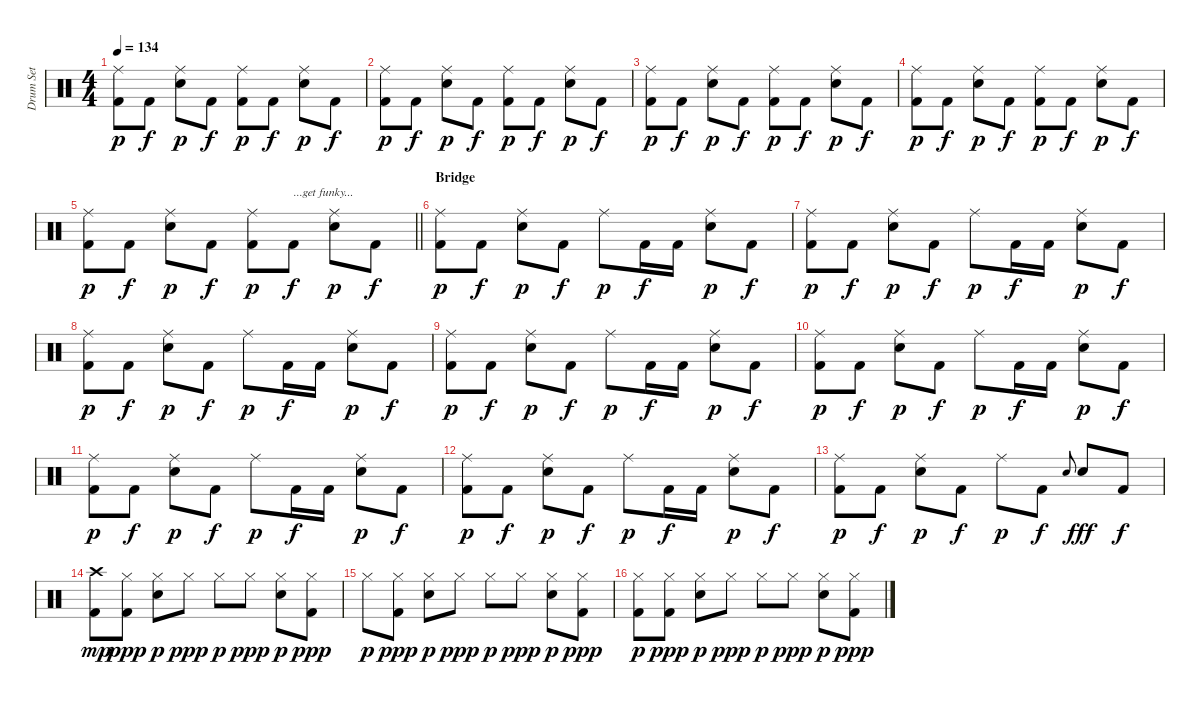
\track ("Drum Set" "Drum Set") {instrument percussion}
\staff {score}
\articulation defaults
\ts (4 4)
\tempo 134
\clef neutral
\ks c
("Ride (middle)" "Kick (hit) 2").8{dy p} "Kick (hit) 2".8{dy f} ("Electric Snare (hit)" "Ride (middle)").8{dy p} "Kick (hit) 2".8{dy f} ("Kick (hit) 2" "Ride (middle)").8{dy p} "Kick (hit) 2".8{dy f} ("Electric Snare (hit)" "Ride (middle)").8{dy p} "Kick (hit) 2".8{dy f} |
("Ride (middle)" "Kick (hit) 2").8{dy p} "Kick (hit) 2".8{dy f} ("Electric Snare (hit)" "Ride (middle)").8{dy p} "Kick (hit) 2".8{dy f} ("Kick (hit) 2" "Ride (middle)").8{dy p} "Kick (hit) 2".8{dy f} ("Electric Snare (hit)" "Ride (middle)").8{dy p} "Kick (hit) 2".8{dy f} |
("Ride (middle)" "Kick (hit) 2").8{dy p} "Kick (hit) 2".8{dy f} ("Electric Snare (hit)" "Ride (middle)").8{dy p} "Kick (hit) 2".8{dy f} ("Kick (hit) 2" "Ride (middle)").8{dy p} "Kick (hit) 2".8{dy f} ("Electric Snare (hit)" "Ride (middle)").8{dy p} "Kick (hit) 2".8{dy f} |
("Ride (middle)" "Kick (hit) 2").8{dy p} "Kick (hit) 2".8{dy f} ("Electric Snare (hit)" "Ride (middle)").8{dy p} "Kick (hit) 2".8{dy f} ("Kick (hit) 2" "Ride (middle)").8{dy p} "Kick (hit) 2".8{dy f} ("Electric Snare (hit)" "Ride (middle)").8{dy p} "Kick (hit) 2".8{dy f} |
\barLineRight lightlight
("Ride (middle)" "Kick (hit) 2").8{dy p} "Kick (hit) 2".8{dy f} ("Electric Snare (hit)" "Ride (middle)").8{dy p} "Kick (hit) 2".8{dy f} ("Kick (hit) 2" "Ride (middle)").8{dy p} "Kick (hit) 2".8{txt "...get funky..." dy f} ("Electric Snare (hit)" "Ride (middle)").8{dy p} "Kick (hit) 2".8{dy f} |
\section ("" "Bridge")
("Ride (middle)" "Kick (hit) 2").8{dy p} "Kick (hit) 2".8{dy f} ("Electric Snare (hit)" "Ride (middle)").8{dy p} "Kick (hit) 2".8{dy f} "Ride (middle)".8{dy p} "Kick (hit) 2".16{dy f} "Kick (hit) 2".16 ("Electric Snare (hit)" "Ride (middle)").8{dy p} "Kick (hit) 2".8{dy f} |
("Ride (middle)" "Kick (hit) 2").8{dy p} "Kick (hit) 2".8{dy f} ("Electric Snare (hit)" "Ride (middle)").8{dy p} "Kick (hit) 2".8{dy f} "Ride (middle)".8{dy p} "Kick (hit) 2".16{dy f} "Kick (hit) 2".16 ("Electric Snare (hit)" "Ride (middle)").8{dy p} "Kick (hit) 2".8{dy f} |
("Ride (middle)" "Kick (hit) 2").8{dy p} "Kick (hit) 2".8{dy f} ("Electric Snare (hit)" "Ride (middle)").8{dy p} "Kick (hit) 2".8{dy f} "Ride (middle)".8{dy p} "Kick (hit) 2".16{dy f} "Kick (hit) 2".16 ("Electric Snare (hit)" "Ride (middle)").8{dy p} "Kick (hit) 2".8{dy f} |
("Ride (middle)" "Kick (hit) 2").8{dy p} "Kick (hit) 2".8{dy f} ("Electric Snare (hit)" "Ride (middle)").8{dy p} "Kick (hit) 2".8{dy f} "Ride (middle)".8{dy p} "Kick (hit) 2".16{dy f} "Kick (hit) 2".16 ("Electric Snare (hit)" "Ride (middle)").8{dy p} "Kick (hit) 2".8{dy f} |
("Ride (middle)" "Kick (hit) 2").8{dy p} "Kick (hit) 2".8{dy f} ("Electric Snare (hit)" "Ride (middle)").8{dy p} "Kick (hit) 2".8{dy f} "Ride (middle)".8{dy p} "Kick (hit) 2".16{dy f} "Kick (hit) 2".16 ("Electric Snare (hit)" "Ride (middle)").8{dy p} "Kick (hit) 2".8{dy f} |
("Ride (middle)" "Kick (hit) 2").8{dy p} "Kick (hit) 2".8{dy f} ("Electric Snare (hit)" "Ride (middle)").8{dy p} "Kick (hit) 2".8{dy f} "Ride (middle)".8{dy p} "Kick (hit) 2".16{dy f} "Kick (hit) 2".16 ("Electric Snare (hit)" "Ride (middle)").8{dy p} "Kick (hit) 2".8{dy f} |
("Ride (middle)" "Kick (hit) 2").8{dy p} "Kick (hit) 2".8{dy f} ("Electric Snare (hit)" "Ride (middle)").8{dy p} "Kick (hit) 2".8{dy f} "Ride (middle)".8{dy p} "Kick (hit) 2".16{dy f} "Kick (hit) 2".16 ("Electric Snare (hit)" "Ride (middle)").8{dy p} "Kick (hit) 2".8{dy f} |
("Ride (middle)" "Kick (hit) 2").8{dy p} "Kick (hit) 2".8{dy f} ("Electric Snare (hit)" "Ride (middle)").8{dy p} "Kick (hit) 2".8{dy f} "Ride (middle)".8{dy p} "Kick (hit) 2".8{dy f} "Electric Snare (hit)".8{gr onbeat} "Electric Snare (hit)".8{dy fff} "Kick (hit) 2".8{dy f} |
("Crash high (hit)" "Kick (hit) 2").8{dy mp} ("Hi-Hat (closed)" "Kick (hit) 2").8{dy ppp} ("Hi-Hat (closed)" "Electric Snare (hit)").8{dy p} "Hi-Hat (closed)".8{dy ppp} "Hi-Hat (closed)".8{dy p} "Hi-Hat (closed)".8{dy ppp} ("Hi-Hat (closed)" "Electric Snare (hit)").8{dy p} ("Hi-Hat (closed)" "Kick (hit) 2").8{dy ppp} |
"Hi-Hat (closed)".8{dy p} ("Hi-Hat (closed)" "Kick (hit) 2").8{dy ppp} ("Hi-Hat (closed)" "Electric Snare (hit)").8{dy p} "Hi-Hat (closed)".8{dy ppp} "Hi-Hat (closed)".8{dy p} "Hi-Hat (closed)".8{dy ppp} ("Hi-Hat (closed)" "Electric Snare (hit)").8{dy p} ("Hi-Hat (closed)" "Kick (hit) 2").8{dy ppp} |
("Hi-Hat (closed)" "Kick (hit) 2").8{dy p} ("Hi-Hat (closed)" "Kick (hit) 2").8{dy ppp} ("Hi-Hat (closed)" "Electric Snare (hit)").8{dy p} "Hi-Hat (closed)".8{dy ppp} "Hi-Hat (closed)".8{dy p} "Hi-Hat (closed)".8{dy ppp} ("Hi-Hat (closed)" "Electric Snare (hit)").8{dy p} ("Hi-Hat (closed)" "Kick (hit) 2").8{dy ppp}
